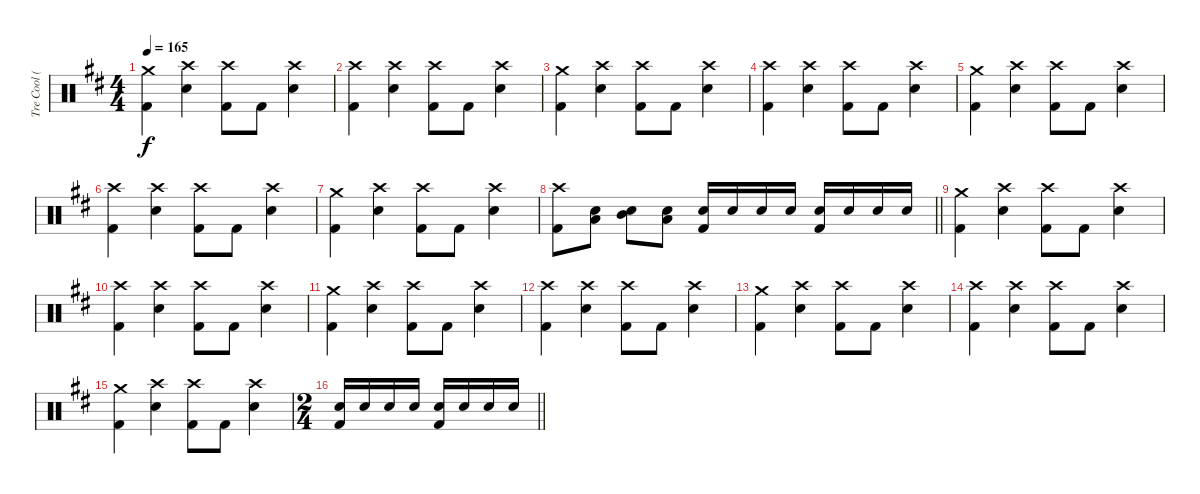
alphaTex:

\track ("Tre Cool (Drums)" "Tre Cool (") {instrument percussion}
\staff {score}
\articulation defaults
\ts (4 4)
\tempo 165
\clef neutral
\ks d
("Crash medium (hit)" "Kick (hit) 2").4{dy f} ("Crash high (hit)" "Electric Snare (hit)").4 ("Crash high (hit)" "Kick (hit) 2").8 "Kick (hit) 2".8 ("Crash high (hit)" "Electric Snare (hit)").4 |
("Crash high (hit)" "Kick (hit) 2").4 ("Crash high (hit)" "Electric Snare (hit)").4 ("Crash high (hit)" "Kick (hit) 2").8 "Kick (hit) 2".8 ("Crash high (hit)" "Electric Snare (hit)").4 |
("Crash medium (hit)" "Kick (hit) 2").4 ("Crash high (hit)" "Electric Snare (hit)").4 ("Crash high (hit)" "Kick (hit) 2").8 "Kick (hit) 2".8 ("Crash high (hit)" "Electric Snare (hit)").4 |
("Crash high (hit)" "Kick (hit) 2").4 ("Crash high (hit)" "Electric Snare (hit)").4 ("Crash high (hit)" "Kick (hit) 2").8 "Kick (hit) 2".8 ("Crash high (hit)" "Electric Snare (hit)").4 |
("Crash medium (hit)" "Kick (hit) 2").4 ("Crash high (hit)" "Electric Snare (hit)").4 ("Crash high (hit)" "Kick (hit) 2").8 "Kick (hit) 2".8 ("Crash high (hit)" "Electric Snare (hit)").4 |
("Crash high (hit)" "Kick (hit) 2").4 ("Crash high (hit)" "Electric Snare (hit)").4 ("Crash high (hit)" "Kick (hit) 2").8 "Kick (hit) 2".8 ("Crash high (hit)" "Electric Snare (hit)").4 |
("Crash medium (hit)" "Kick (hit) 2").4 ("Crash high (hit)" "Electric Snare (hit)").4 ("Crash high (hit)" "Kick (hit) 2").8 "Kick (hit) 2".8 ("Crash high (hit)" "Electric Snare (hit)").4 |
\barLineRight lightlight
("Crash high (hit)" "Kick (hit) 2").8 ("Low Tom (hit)" "Electric Snare (hit)").8 ("Mid Tom (hit)" "Electric Snare (hit)").8 ("Low Tom (hit)" "Electric Snare (hit)").8 ("Electric Snare (hit)" "Kick (hit) 2").16 "Electric Snare (hit)".16 "Electric Snare (hit)".16 "Electric Snare (hit)".16 ("Electric Snare (hit)" "Kick (hit) 2").16 "Electric Snare (hit)".16 "Electric Snare (hit)".16 "Electric Snare (hit)".16 |
("Crash medium (hit)" "Kick (hit) 2").4 ("Crash high (hit)" "Electric Snare (hit)").4 ("Crash high (hit)" "Kick (hit) 2").8 "Kick (hit) 2".8 ("Crash high (hit)" "Electric Snare (hit)").4 |
("Crash high (hit)" "Kick (hit) 2").4 ("Crash high (hit)" "Electric Snare (hit)").4 ("Crash high (hit)" "Kick (hit) 2").8 "Kick (hit) 2".8 ("Crash high (hit)" "Electric Snare (hit)").4 |
("Crash medium (hit)" "Kick (hit) 2").4 ("Crash high (hit)" "Electric Snare (hit)").4 ("Crash high (hit)" "Kick (hit) 2").8 "Kick (hit) 2".8 ("Crash high (hit)" "Electric Snare (hit)").4 |
("Crash high (hit)" "Kick (hit) 2").4 ("Crash high (hit)" "Electric Snare (hit)").4 ("Crash high (hit)" "Kick (hit) 2").8 "Kick (hit) 2".8 ("Crash high (hit)" "Electric Snare (hit)").4 |
("Crash medium (hit)" "Kick (hit) 2").4 ("Crash high (hit)" "Electric Snare (hit)").4 ("Crash high (hit)" "Kick (hit) 2").8 "Kick (hit) 2".8 ("Crash high (hit)" "Electric Snare (hit)").4 |
("Crash high (hit)" "Kick (hit) 2").4 ("Crash high (hit)" "Electric Snare (hit)").4 ("Crash high (hit)" "Kick (hit) 2").8 "Kick (hit) 2".8 ("Crash high (hit)" "Electric Snare (hit)").4 |
("Crash medium (hit)" "Kick (hit) 2").4 ("Crash high (hit)" "Electric Snare (hit)").4 ("Crash high (hit)" "Kick (hit) 2").8 "Kick (hit) 2".8 ("Crash high (hit)" "Electric Snare (hit)").4 |
\ts (2 4)
\barLineRight lightlight
("Electric Snare (hit)" "Kick (hit) 2").16 "Electric Snare (hit)".16 "Electric Snare (hit)".16 "Electric Snare (hit)".16 ("Electric Snare (hit)" "Kick (hit) 2").16 "Electric Snare (hit)".16 "Electric Snare (hit)".16 "Electric Snare (hit)".16
